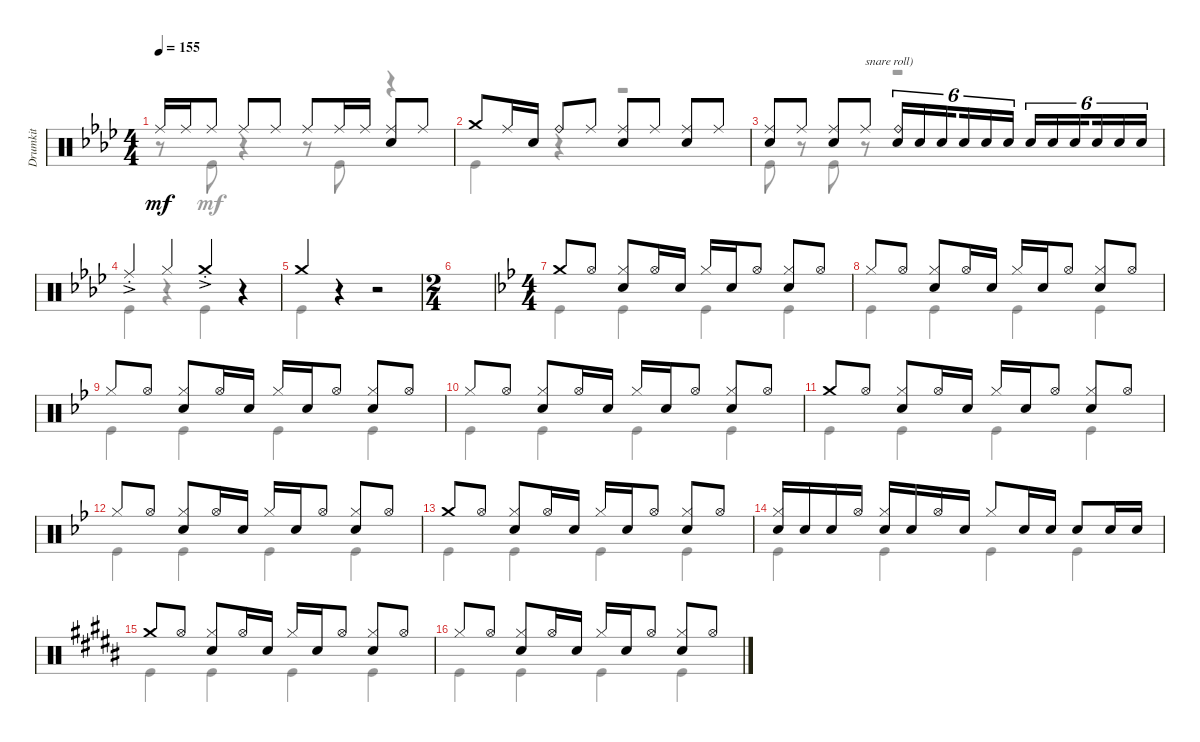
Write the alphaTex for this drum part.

\track ("Drumkit" "Drumkit") {instrument percussion}
\staff {score}
\articulation defaults
\voice
\ts (4 4)
\tempo 155
\clef neutral
\ks ab "Ride (middle)".16{dy mf} "Ride (middle)".16 "Ride (middle)".8 "Ride (middle)".8 "Ride (middle)".8 "Ride (middle)".8 "Ride (middle)".16 "Ride (middle)".16
("Snare (hit) 2" "Ride (middle)"{t}).8 "Ride (middle)".8 |
"Crash medium (hit)".8 "Ride (middle)".16 "Snare (hit) 2".16 "Ride (bell)".8 "Ride (middle)".8 ("Ride (middle)" "Snare (hit) 2").8 "Ride (middle)".8 ("Ride (middle)" "Snare (hit) 2").8 "Ride (middle)".8 |
("Ride (middle)" "Snare (hit) 2").8 "Ride (middle)".8 ("Ride (middle)" "Snare (hit) 2").8 "Ride (middle)".8{txt "snare roll)"} ("Snare (hit) 2" "Ride (bell)").16{tu (6 4)} "Snare (hit) 2".16{tu (6 4)} "Snare (hit) 2".16{tu (6 4) beam splitsecondary} "Snare (hit) 2".16{tu (6 4)} "Snare (hit) 2".16{tu (6 4)} "Snare (hit) 2".16{tu (6 4)} "Snare (hit) 2".16{tu (6 4)} "Snare (hit) 2".16{tu (6 4)} "Snare (hit) 2".16{tu (6 4) beam splitsecondary} "Snare (hit) 2".16{tu (6 4)} "Snare (hit) 2".16{tu (6 4)} "Snare (hit) 2".16{tu (6 4)} |
"Ride (middle)"{ac st}.4 "Hi-Hat (closed)".4 "Crash medium (hit)"{ac st}.4 r.4 |
"Crash medium (hit)".4 r.4 r.2 |
\ts (2 4)
|
\ts (4 4)
\ks bb "Crash medium (hit)".8 "Hi-Hat (open)".8
("Hi-Hat (closed)" "Snare (hit) 2").8 "Hi-Hat (open)".16 "Snare (hit) 2".16 "Hi-Hat (closed)".16 "Snare (hit) 2".16 "Hi-Hat (open)".8 ("Hi-Hat (closed)" "Snare (hit) 2").8 "Hi-Hat (open)".8 |
"Hi-Hat (closed)".8 "Hi-Hat (open)".8 ("Hi-Hat (closed)" "Snare (hit) 2").8 "Hi-Hat (open)".16 "Snare (hit) 2".16 "Hi-Hat (closed)".16 "Snare (hit) 2".16 "Hi-Hat (open)".8 ("Hi-Hat (closed)" "Snare (hit) 2").8 "Hi-Hat (open)".8 |
"Hi-Hat (closed)".8 "Hi-Hat (open)".8 ("Hi-Hat (closed)" "Snare (hit) 2").8 "Hi-Hat (open)".16 "Snare (hit) 2".16 "Hi-Hat (closed)".16 "Snare (hit) 2".16 "Hi-Hat (open)".8 ("Hi-Hat (closed)" "Snare (hit) 2").8 "Hi-Hat (open)".8 |
"Hi-Hat (closed)".8 "Hi-Hat (open)".8 ("Hi-Hat (closed)" "Snare (hit) 2").8 "Hi-Hat (open)".16 "Snare (hit) 2".16 "Hi-Hat (closed)".16 "Snare (hit) 2".16 "Hi-Hat (open)".8 ("Hi-Hat (closed)" "Snare (hit) 2").8 "Hi-Hat (open)".8 |
"Crash medium (hit)".8 "Hi-Hat (open)".8 ("Hi-Hat (closed)" "Snare (hit) 2").8 "Hi-Hat (open)".16 "Snare (hit) 2".16 "Hi-Hat (closed)".16 "Snare (hit) 2".16 "Hi-Hat (open)".8 ("Hi-Hat (closed)" "Snare (hit) 2").8 "Hi-Hat (open)".8 |
"Hi-Hat (closed)".8 "Hi-Hat (open)".8 ("Hi-Hat (closed)" "Snare (hit) 2").8 "Hi-Hat (open)".16 "Snare (hit) 2".16 "Hi-Hat (closed)".16 "Snare (hit) 2".16 "Hi-Hat (open)".8 ("Hi-Hat (closed)" "Snare (hit) 2").8 "Hi-Hat (open)".8 |
"Crash medium (hit)".8 "Hi-Hat (open)".8 ("Hi-Hat (closed)" "Snare (hit) 2").8 "Hi-Hat (open)".16 "Snare (hit) 2".16 "Hi-Hat (closed)".16 "Snare (hit) 2".16 "Hi-Hat (open)".8 ("Hi-Hat (closed)" "Snare (hit) 2").8 "Hi-Hat (open)".8 |
("Hi-Hat (closed)" "Snare (hit) 2").16 "Snare (hit) 2".16 "Snare (hit) 2".16 "Hi-Hat (open)".16 ("Hi-Hat (closed)" "Snare (hit) 2").16 "Snare (hit) 2".16 "Hi-Hat (open)".16 "Snare (hit) 2".16 "Hi-Hat (closed)".8 "Snare (hit) 2".16 "Snare (hit) 2".16 "Snare (hit) 2".8 "Snare (hit) 2".16 "Snare (hit) 2".16 |
\ks b "Crash medium (hit)".8 "Hi-Hat (open)".8
("Hi-Hat (closed)" "Snare (hit) 2").8 "Hi-Hat (open)".16 "Snare (hit) 2".16 "Hi-Hat (closed)".16 "Snare (hit) 2".16 "Hi-Hat (open)".8 ("Hi-Hat (closed)" "Snare (hit) 2").8 "Hi-Hat (open)".8 |
"Hi-Hat (closed)".8 "Hi-Hat (open)".8 ("Hi-Hat (closed)" "Snare (hit) 2").8 "Hi-Hat (open)".16 "Snare (hit) 2".16 "Hi-Hat (closed)".16 "Snare (hit) 2".16 "Hi-Hat (open)".8 ("Hi-Hat (closed)" "Snare (hit) 2").8 "Hi-Hat (open)".8
\voice
\clef neutral
\ottava regular
\simile none
\ks ab
r.8{dy mf} "Kick (hit)".8 r.4 r.8 "Kick (hit)".8 r.4 |
"Kick (hit)".4 r.4 r.2 |
"Kick (hit)".8 r.8 "Kick (hit)".8 r.8 r.2 |
"Kick (hit)".4 r.4 "Kick (hit)".4 r.4 |
"Kick (hit)".4 r.4 r.2 |
|
\ks bb "Kick (hit)".4 "Kick (hit)".4 "Kick (hit)".4 "Kick (hit)".4
|
"Kick (hit)".4 "Kick (hit)".4 "Kick (hit)".4 "Kick (hit)".4 |
"Kick (hit)".4 "Kick (hit)".4 "Kick (hit)".4 "Kick (hit)".4 |
"Kick (hit)".4 "Kick (hit)".4 "Kick (hit)".4 "Kick (hit)".4 |
"Kick (hit)".4 "Kick (hit)".4 "Kick (hit)".4 "Kick (hit)".4 |
"Kick (hit)".4 "Kick (hit)".4 "Kick (hit)".4 "Kick (hit)".4 |
"Kick (hit)".4 "Kick (hit)".4 "Kick (hit)".4 "Kick (hit)".4 |
"Kick (hit)".4 "Kick (hit)".4 "Kick (hit)".4 "Kick (hit)".4 |
\ks b "Kick (hit)".4 "Kick (hit)".4 "Kick (hit)".4 "Kick (hit)".4
|
"Kick (hit)".4 "Kick (hit)".4 "Kick (hit)".4 "Kick (hit)".4
